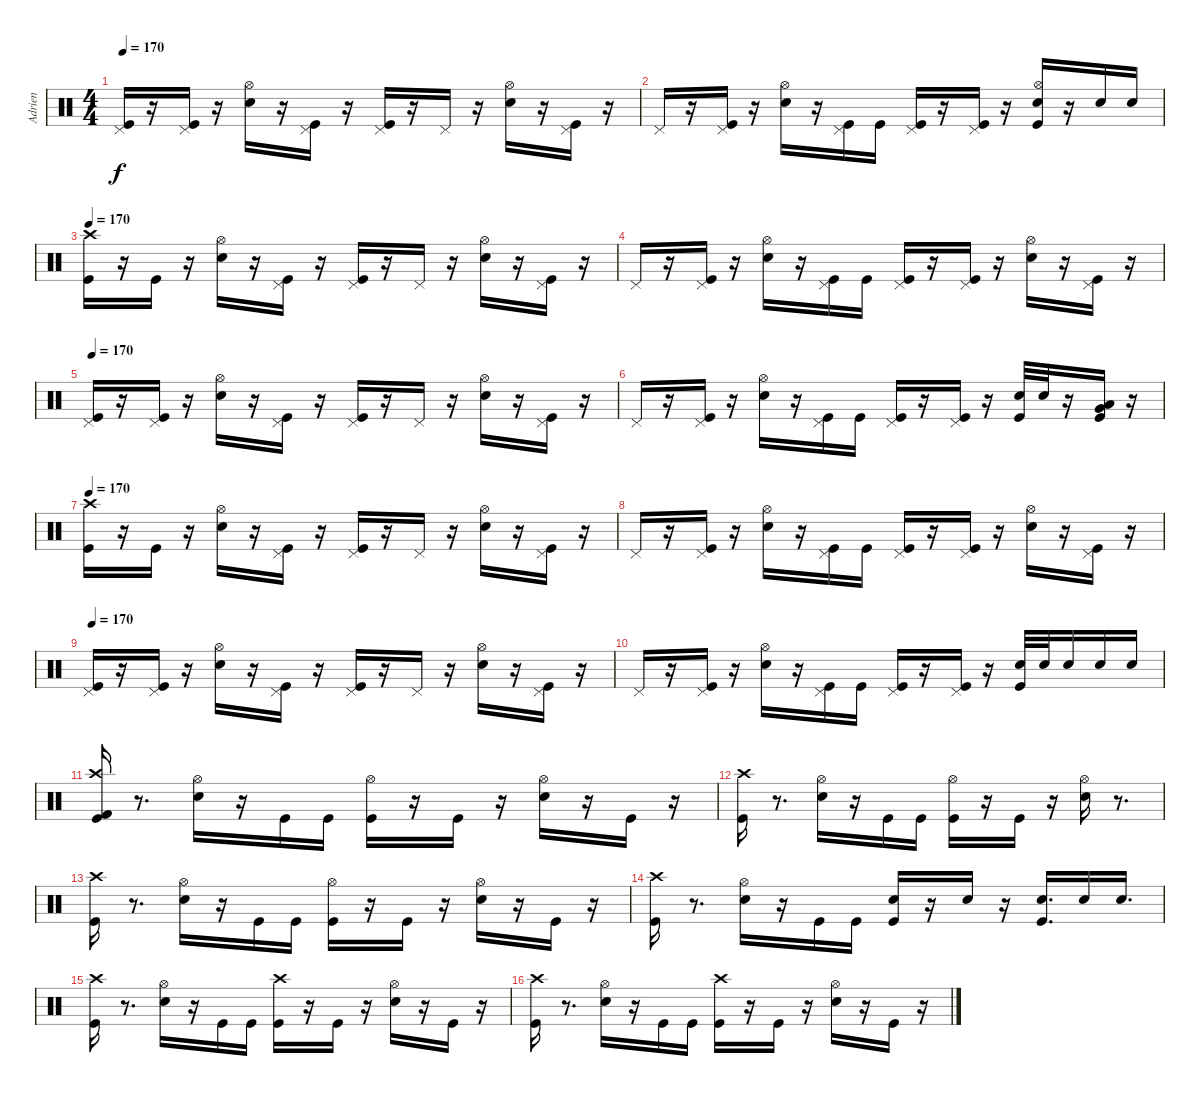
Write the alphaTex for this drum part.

\track ("Adrien" "Adrien") {instrument percussion}
\staff {score}
\articulation defaults
\ts (4 4)
\tempo 170
\clef neutral
\ks c
("Pedal Hi-Hat (hit)" "Kick (hit)").16{dy f} r.16 ("Pedal Hi-Hat (hit)" "Kick (hit)").16 r.16 ("Hi-Hat (open)" "Electric Snare (hit)").16 r.16 ("Pedal Hi-Hat (hit)" "Kick (hit)").16 r.16 ("Pedal Hi-Hat (hit)" "Kick (hit)").16 r.16 "Pedal Hi-Hat (hit)".16 r.16 ("Hi-Hat (open)" "Electric Snare (hit)").16 r.16 ("Pedal Hi-Hat (hit)" "Kick (hit)").16 r.16 |
"Pedal Hi-Hat (hit)".16 r.16 ("Pedal Hi-Hat (hit)" "Kick (hit)").16 r.16 ("Hi-Hat (open)" "Electric Snare (hit)").16 r.16 ("Pedal Hi-Hat (hit)" "Kick (hit)").16 "Kick (hit)".16 ("Pedal Hi-Hat (hit)" "Kick (hit)").16 r.16 ("Pedal Hi-Hat (hit)" "Kick (hit)").16 r.16 ("Hi-Hat (open)" "Kick (hit)" "Electric Snare (hit)").16 r.16 "Electric Snare (hit)".16 "Electric Snare (hit)".16 |
\tempo 170
("Crash high (hit)" "Kick (hit)").16 r.16 "Kick (hit)".16 r.16 ("Hi-Hat (open)" "Electric Snare (hit)").16 r.16 ("Pedal Hi-Hat (hit)" "Kick (hit)").16 r.16 ("Pedal Hi-Hat (hit)" "Kick (hit)").16 r.16 "Pedal Hi-Hat (hit)".16 r.16 ("Hi-Hat (open)" "Electric Snare (hit)").16 r.16 ("Pedal Hi-Hat (hit)" "Kick (hit)").16 r.16 |
"Pedal Hi-Hat (hit)".16 r.16 ("Pedal Hi-Hat (hit)" "Kick (hit)").16 r.16 ("Hi-Hat (open)" "Electric Snare (hit)").16 r.16 ("Pedal Hi-Hat (hit)" "Kick (hit)").16 "Kick (hit)".16 ("Pedal Hi-Hat (hit)" "Kick (hit)").16 r.16 ("Pedal Hi-Hat (hit)" "Kick (hit)").16 r.16 ("Hi-Hat (open)" "Electric Snare (hit)").16 r.16 ("Pedal Hi-Hat (hit)" "Kick (hit)").16 r.16 |
\tempo 170
("Pedal Hi-Hat (hit)" "Kick (hit)").16 r.16 ("Pedal Hi-Hat (hit)" "Kick (hit)").16 r.16 ("Hi-Hat (open)" "Electric Snare (hit)").16 r.16 ("Pedal Hi-Hat (hit)" "Kick (hit)").16 r.16 ("Pedal Hi-Hat (hit)" "Kick (hit)").16 r.16 "Pedal Hi-Hat (hit)".16 r.16 ("Hi-Hat (open)" "Electric Snare (hit)").16 r.16 ("Pedal Hi-Hat (hit)" "Kick (hit)").16 r.16 |
"Pedal Hi-Hat (hit)".16 r.16 ("Pedal Hi-Hat (hit)" "Kick (hit)").16 r.16 ("Hi-Hat (open)" "Electric Snare (hit)").16 r.16 ("Pedal Hi-Hat (hit)" "Kick (hit)").16 "Kick (hit)".16 ("Pedal Hi-Hat (hit)" "Kick (hit)").16 r.16 ("Pedal Hi-Hat (hit)" "Kick (hit)").16 r.16 ("Kick (hit)" "Electric Snare (hit)").32 "Electric Snare (hit)".32 r.16 ("Kick (hit)" "Very Low Tom (hit)" "Low Floor Tom (hit)").16 r.16 |
\tempo 170
("Kick (hit)" "Crash high (hit)").16 r.16 "Kick (hit)".16 r.16 ("Hi-Hat (open)" "Electric Snare (hit)").16 r.16 ("Pedal Hi-Hat (hit)" "Kick (hit)").16 r.16 ("Pedal Hi-Hat (hit)" "Kick (hit)").16 r.16 "Pedal Hi-Hat (hit)".16 r.16 ("Hi-Hat (open)" "Electric Snare (hit)").16 r.16 ("Pedal Hi-Hat (hit)" "Kick (hit)").16 r.16 |
"Pedal Hi-Hat (hit)".16 r.16 ("Pedal Hi-Hat (hit)" "Kick (hit)").16 r.16 ("Hi-Hat (open)" "Electric Snare (hit)").16 r.16 ("Pedal Hi-Hat (hit)" "Kick (hit)").16 "Kick (hit)".16 ("Pedal Hi-Hat (hit)" "Kick (hit)").16 r.16 ("Pedal Hi-Hat (hit)" "Kick (hit)").16 r.16 ("Hi-Hat (open)" "Electric Snare (hit)").16 r.16 ("Pedal Hi-Hat (hit)" "Kick (hit)").16 r.16 |
\tempo 170
("Pedal Hi-Hat (hit)" "Kick (hit)").16 r.16 ("Pedal Hi-Hat (hit)" "Kick (hit)").16 r.16 ("Hi-Hat (open)" "Electric Snare (hit)").16 r.16 ("Pedal Hi-Hat (hit)" "Kick (hit)").16 r.16 ("Pedal Hi-Hat (hit)" "Kick (hit)").16 r.16 "Pedal Hi-Hat (hit)".16 r.16 ("Hi-Hat (open)" "Electric Snare (hit)").16 r.16 ("Pedal Hi-Hat (hit)" "Kick (hit)").16 r.16 |
"Pedal Hi-Hat (hit)".16 r.16 ("Pedal Hi-Hat (hit)" "Kick (hit)").16 r.16 ("Hi-Hat (open)" "Electric Snare (hit)").16 r.16 ("Pedal Hi-Hat (hit)" "Kick (hit)").16 "Kick (hit)".16 ("Pedal Hi-Hat (hit)" "Kick (hit)").16 r.16 ("Pedal Hi-Hat (hit)" "Kick (hit)").16 r.16 ("Kick (hit)" "Electric Snare (hit)").32 "Electric Snare (hit)".32 "Electric Snare (hit)".16 "Electric Snare (hit)".16 "Electric Snare (hit)".16 |
("Kick (hit) 2" "Crash high (hit)" "Kick (hit)").16 r.8{d} ("Hi-Hat (open)" "Electric Snare (hit)").16 r.16 "Kick (hit)".16 "Kick (hit)".16 ("Hi-Hat (open)" "Kick (hit)").16 r.16 "Kick (hit)".16 r.16 ("Hi-Hat (open)" "Electric Snare (hit)").16 r.16 "Kick (hit)".16 r.16 |
("Crash high (hit)" "Kick (hit)").16 r.8{d} ("Hi-Hat (open)" "Electric Snare (hit)").16 r.16 "Kick (hit)".16 "Kick (hit)".16 ("Hi-Hat (open)" "Kick (hit)").16 r.16 "Kick (hit)".16 r.16 ("Hi-Hat (open)" "Electric Snare (hit)").16 r.8{d} |
("Crash high (hit)" "Kick (hit)").16 r.8{d} ("Hi-Hat (open)" "Electric Snare (hit)").16 r.16 "Kick (hit)".16 "Kick (hit)".16 ("Hi-Hat (open)" "Kick (hit)").16 r.16 "Kick (hit)".16 r.16 ("Hi-Hat (open)" "Electric Snare (hit)").16 r.16 "Kick (hit)".16 r.16 |
("Crash high (hit)" "Kick (hit)").16 r.8{d} ("Hi-Hat (open)" "Electric Snare (hit)").16 r.16 "Kick (hit)".16 "Kick (hit)".16 ("Kick (hit)" "Electric Snare (hit)").16 r.16 "Electric Snare (hit)".16 r.16 ("Kick (hit)" "Electric Snare (hit)").16{d} "Electric Snare (hit)".16 "Electric Snare (hit)".16{d} |
("Crash high (hit)" "Kick (hit)").16 r.8{d} ("Hi-Hat (open)" "Electric Snare (hit)").16 r.16 "Kick (hit)".16 "Kick (hit)".16 ("Crash high (hit)" "Kick (hit)").16 r.16 "Kick (hit)".16 r.16 ("Hi-Hat (open)" "Electric Snare (hit)").16 r.16 "Kick (hit)".16 r.16 |
("Crash high (hit)" "Kick (hit)").16 r.8{d} ("Hi-Hat (open)" "Electric Snare (hit)").16 r.16 "Kick (hit)".16 "Kick (hit)".16 ("Crash high (hit)" "Kick (hit)").16 r.16 "Kick (hit)".16 r.16 ("Hi-Hat (open)" "Electric Snare (hit)").16 r.16 "Kick (hit)".16 r.16
